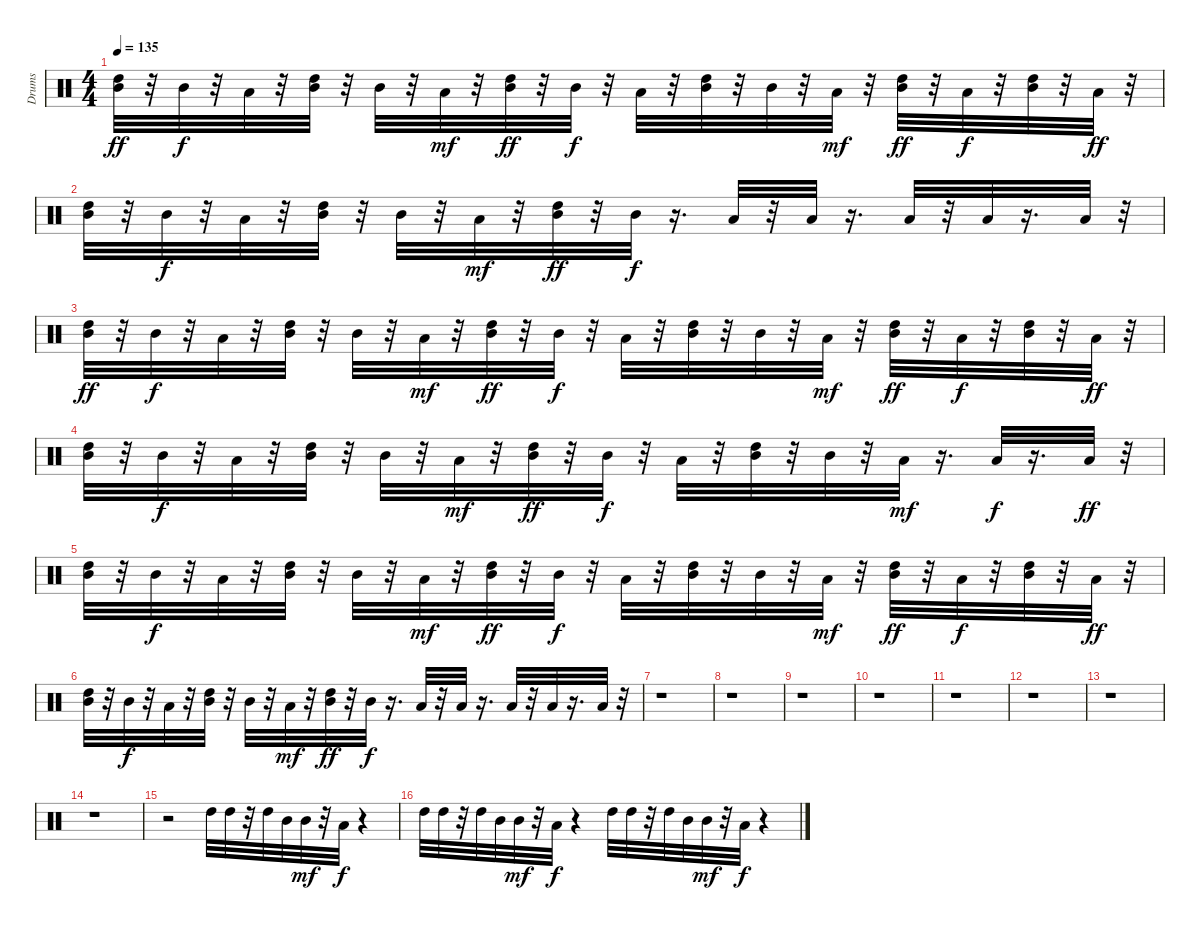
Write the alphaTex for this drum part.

\track ("Drums" "Drums") {instrument percussion}
\staff {score}
\articulation defaults
\ts (4 4)
\tempo 135
\clef neutral
\ks c
("High Tom (hit)" "Mid Tom (hit)").32{dy ff} r.32 "Mid Tom (hit)".32{dy f} r.32 "Low Tom (hit)".32 r.32 ("High Tom (hit)" "Mid Tom (hit)").32 r.32 "Mid Tom (hit)".32 r.32 "Low Tom (hit)".32{dy mf} r.32 ("High Tom (hit)" "Mid Tom (hit)").32{dy ff} r.32 "Mid Tom (hit)".32{dy f} r.32 "Low Tom (hit)".32 r.32 ("High Tom (hit)" "Mid Tom (hit)").32 r.32 "Mid Tom (hit)".32 r.32 "Low Tom (hit)".32{dy mf} r.32 ("High Tom (hit)" "Mid Tom (hit)").32{dy ff} r.32 "Low Tom (hit)".32{dy f} r.32 ("High Tom (hit)" "Mid Tom (hit)").32 r.32 "Low Tom (hit)".32{dy ff} r.32 |
("High Tom (hit)" "Mid Tom (hit)").32 r.32 "Mid Tom (hit)".32{dy f} r.32 "Low Tom (hit)".32 r.32 ("High Tom (hit)" "Mid Tom (hit)").32 r.32 "Mid Tom (hit)".32 r.32 "Low Tom (hit)".32{dy mf} r.32 ("High Tom (hit)" "Mid Tom (hit)").32{dy ff} r.32 "Mid Tom (hit)".32{dy f} r.16{d} "Low Tom (hit)".32 r.32 "Low Tom (hit)".32 r.16{d} "Low Tom (hit)".32 r.32 "Low Tom (hit)".32 r.16{d} "Low Tom (hit)".32 r.32 |
("High Tom (hit)" "Mid Tom (hit)").32{dy ff} r.32 "Mid Tom (hit)".32{dy f} r.32 "Low Tom (hit)".32 r.32 ("High Tom (hit)" "Mid Tom (hit)").32 r.32 "Mid Tom (hit)".32 r.32 "Low Tom (hit)".32{dy mf} r.32 ("High Tom (hit)" "Mid Tom (hit)").32{dy ff} r.32 "Mid Tom (hit)".32{dy f} r.32 "Low Tom (hit)".32 r.32 ("High Tom (hit)" "Mid Tom (hit)").32 r.32 "Mid Tom (hit)".32 r.32 "Low Tom (hit)".32{dy mf} r.32 ("High Tom (hit)" "Mid Tom (hit)").32{dy ff} r.32 "Low Tom (hit)".32{dy f} r.32 ("High Tom (hit)" "Mid Tom (hit)").32 r.32 "Low Tom (hit)".32{dy ff} r.32 |
("High Tom (hit)" "Mid Tom (hit)").32 r.32 "Mid Tom (hit)".32{dy f} r.32 "Low Tom (hit)".32 r.32 ("High Tom (hit)" "Mid Tom (hit)").32 r.32 "Mid Tom (hit)".32 r.32 "Low Tom (hit)".32{dy mf} r.32 ("High Tom (hit)" "Mid Tom (hit)").32{dy ff} r.32 "Mid Tom (hit)".32{dy f} r.32 "Low Tom (hit)".32 r.32 ("High Tom (hit)" "Mid Tom (hit)").32 r.32 "Mid Tom (hit)".32 r.32 "Low Tom (hit)".32{dy mf} r.16{d} "Low Tom (hit)".32{dy f} r.16{d} "Low Tom (hit)".32{dy ff} r.32 |
("High Tom (hit)" "Mid Tom (hit)").32 r.32 "Mid Tom (hit)".32{dy f} r.32 "Low Tom (hit)".32 r.32 ("High Tom (hit)" "Mid Tom (hit)").32 r.32 "Mid Tom (hit)".32 r.32 "Low Tom (hit)".32{dy mf} r.32 ("High Tom (hit)" "Mid Tom (hit)").32{dy ff} r.32 "Mid Tom (hit)".32{dy f} r.32 "Low Tom (hit)".32 r.32 ("High Tom (hit)" "Mid Tom (hit)").32 r.32 "Mid Tom (hit)".32 r.32 "Low Tom (hit)".32{dy mf} r.32 ("High Tom (hit)" "Mid Tom (hit)").32{dy ff} r.32 "Low Tom (hit)".32{dy f} r.32 ("High Tom (hit)" "Mid Tom (hit)").32 r.32 "Low Tom (hit)".32{dy ff} r.32 |
("High Tom (hit)" "Mid Tom (hit)").32 r.32 "Mid Tom (hit)".32{dy f} r.32 "Low Tom (hit)".32 r.32 ("High Tom (hit)" "Mid Tom (hit)").32 r.32 "Mid Tom (hit)".32 r.32 "Low Tom (hit)".32{dy mf} r.32 ("High Tom (hit)" "Mid Tom (hit)").32{dy ff} r.32 "Mid Tom (hit)".32{dy f} r.16{d} "Low Tom (hit)".32 r.32 "Low Tom (hit)".32 r.16{d} "Low Tom (hit)".32 r.32 "Low Tom (hit)".32 r.16{d} "Low Tom (hit)".32 r.32 |
r.1 |
r.1 |
r.1 |
r.1 |
r.1 |
r.1 |
r.1 |
r.1 |
r.2 "High Tom (hit)".32 "High Tom (hit)".32 r.32 "High Tom (hit)".32 "Mid Tom (hit)".32 "Mid Tom (hit)".32{dy mf} r.32 "Low Tom (hit)".32{dy f} r.4 |
"High Tom (hit)".32 "High Tom (hit)".32 r.32 "High Tom (hit)".32 "Mid Tom (hit)".32 "Mid Tom (hit)".32{dy mf} r.32 "Low Tom (hit)".32{dy f} r.4 "High Tom (hit)".32 "High Tom (hit)".32 r.32 "High Tom (hit)".32 "Mid Tom (hit)".32 "Mid Tom (hit)".32{dy mf} r.32 "Low Tom (hit)".32{dy f} r.4
